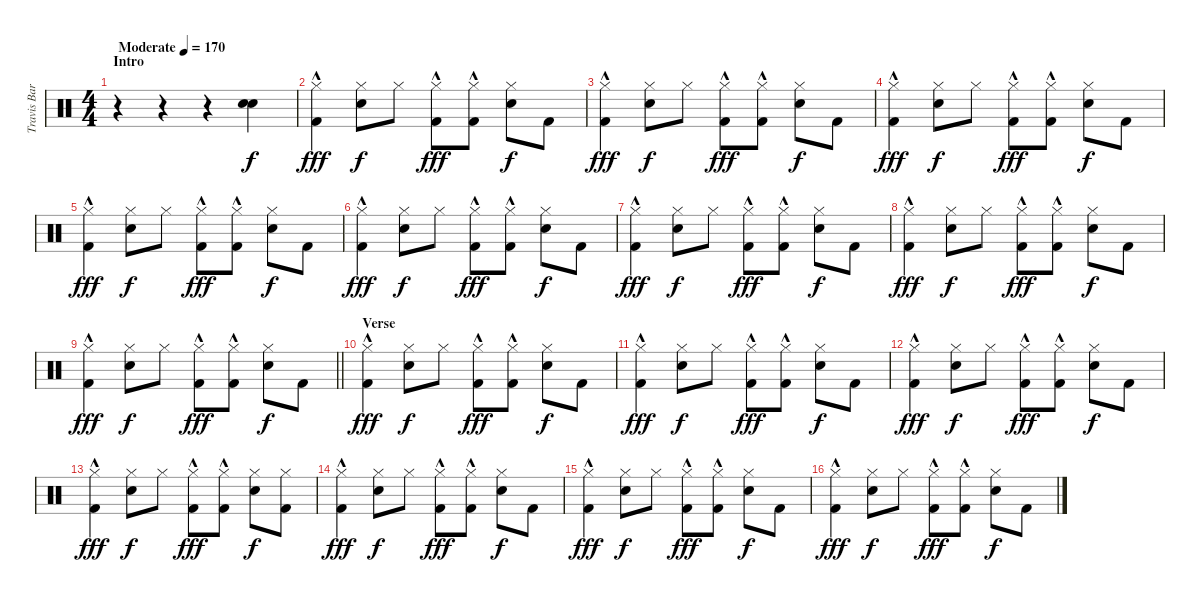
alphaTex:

\track ("Travis Barker" "Travis Bar") {instrument percussion}
\staff {score}
\articulation defaults
\ts (4 4)
\section ("" "Intro")
\tempo (170 "Moderate")
\clef neutral
\ks c
r.4{dy f} r.4 r.4 ("Snare (hit) 2" "Electric Snare (hit)").4 |
("Hi-Hat (closed)" "Kick (hit) 2"{hac}).4{dy fff} ("Hi-Hat (closed)" "Snare (hit) 2").8{dy f} "Hi-Hat (closed)".8 ("Hi-Hat (closed)" "Kick (hit) 2"{hac}).8{dy fff} ("Hi-Hat (closed)" "Kick (hit) 2"{hac}).8 ("Hi-Hat (closed)" "Snare (hit) 2").8{dy f} "Kick (hit) 2".8 |
("Hi-Hat (closed)" "Kick (hit) 2"{hac}).4{dy fff} ("Hi-Hat (closed)" "Snare (hit) 2").8{dy f} "Hi-Hat (closed)".8 ("Hi-Hat (closed)" "Kick (hit) 2"{hac}).8{dy fff} ("Hi-Hat (closed)" "Kick (hit) 2"{hac}).8 ("Hi-Hat (closed)" "Snare (hit) 2").8{dy f} "Kick (hit) 2".8 |
("Hi-Hat (closed)" "Kick (hit) 2"{hac}).4{dy fff} ("Hi-Hat (closed)" "Snare (hit) 2").8{dy f} "Hi-Hat (closed)".8 ("Hi-Hat (closed)" "Kick (hit) 2"{hac}).8{dy fff} ("Hi-Hat (closed)" "Kick (hit) 2"{hac}).8 ("Hi-Hat (closed)" "Snare (hit) 2").8{dy f} "Kick (hit) 2".8 |
("Hi-Hat (closed)" "Kick (hit) 2"{hac}).4{dy fff} ("Hi-Hat (closed)" "Snare (hit) 2").8{dy f} "Hi-Hat (closed)".8 ("Hi-Hat (closed)" "Kick (hit) 2"{hac}).8{dy fff} ("Hi-Hat (closed)" "Kick (hit) 2"{hac}).8 ("Hi-Hat (closed)" "Snare (hit) 2").8{dy f} "Kick (hit) 2".8 |
("Hi-Hat (closed)" "Kick (hit) 2"{hac}).4{dy fff} ("Hi-Hat (closed)" "Snare (hit) 2").8{dy f} "Hi-Hat (closed)".8 ("Hi-Hat (closed)" "Kick (hit) 2"{hac}).8{dy fff} ("Hi-Hat (closed)" "Kick (hit) 2"{hac}).8 ("Hi-Hat (closed)" "Snare (hit) 2").8{dy f} "Kick (hit) 2".8 |
("Hi-Hat (closed)" "Kick (hit) 2"{hac}).4{dy fff} ("Hi-Hat (closed)" "Snare (hit) 2").8{dy f} "Hi-Hat (closed)".8 ("Hi-Hat (closed)" "Kick (hit) 2"{hac}).8{dy fff} ("Hi-Hat (closed)" "Kick (hit) 2"{hac}).8 ("Hi-Hat (closed)" "Snare (hit) 2").8{dy f} "Kick (hit) 2".8 |
("Hi-Hat (closed)" "Kick (hit) 2"{hac}).4{dy fff} ("Hi-Hat (closed)" "Snare (hit) 2").8{dy f} "Hi-Hat (closed)".8 ("Hi-Hat (closed)" "Kick (hit) 2"{hac}).8{dy fff} ("Hi-Hat (closed)" "Kick (hit) 2"{hac}).8 ("Hi-Hat (closed)" "Snare (hit) 2").8{dy f} "Kick (hit) 2".8 |
\barLineRight lightlight
("Hi-Hat (closed)" "Kick (hit) 2"{hac}).4{dy fff} ("Hi-Hat (closed)" "Snare (hit) 2").8{dy f} "Hi-Hat (closed)".8 ("Hi-Hat (closed)" "Kick (hit) 2"{hac}).8{dy fff} ("Hi-Hat (closed)" "Kick (hit) 2"{hac}).8 ("Hi-Hat (closed)" "Snare (hit) 2").8{dy f} "Kick (hit) 2".8 |
\section ("" "Verse")
("Hi-Hat (closed)" "Kick (hit) 2"{hac}).4{dy fff} ("Hi-Hat (closed)" "Snare (hit) 2").8{dy f} "Hi-Hat (closed)".8 ("Hi-Hat (closed)" "Kick (hit) 2"{hac}).8{dy fff} ("Hi-Hat (closed)" "Kick (hit) 2"{hac}).8 ("Hi-Hat (closed)" "Snare (hit) 2").8{dy f} "Kick (hit) 2".8 |
("Hi-Hat (closed)" "Kick (hit) 2"{hac}).4{dy fff} ("Hi-Hat (closed)" "Snare (hit) 2").8{dy f} "Hi-Hat (closed)".8 ("Hi-Hat (closed)" "Kick (hit) 2"{hac}).8{dy fff} ("Hi-Hat (closed)" "Kick (hit) 2"{hac}).8 ("Hi-Hat (closed)" "Snare (hit) 2").8{dy f} "Kick (hit) 2".8 |
("Hi-Hat (closed)" "Kick (hit) 2"{hac}).4{dy fff} ("Hi-Hat (closed)" "Snare (hit) 2").8{dy f} "Hi-Hat (closed)".8 ("Hi-Hat (closed)" "Kick (hit) 2"{hac}).8{dy fff} ("Hi-Hat (closed)" "Kick (hit) 2"{hac}).8 ("Hi-Hat (closed)" "Snare (hit) 2").8{dy f} "Kick (hit) 2".8 |
("Hi-Hat (closed)" "Kick (hit) 2"{hac}).4{dy fff} ("Hi-Hat (closed)" "Snare (hit) 2").8{dy f} "Hi-Hat (closed)".8 ("Hi-Hat (closed)" "Kick (hit) 2"{hac}).8{dy fff} ("Hi-Hat (closed)" "Kick (hit) 2"{hac}).8 ("Hi-Hat (closed)" "Snare (hit) 2").8{dy f} ("Hi-Hat (closed)" "Kick (hit) 2").8 |
("Hi-Hat (closed)" "Kick (hit) 2"{hac}).4{dy fff} ("Hi-Hat (closed)" "Snare (hit) 2").8{dy f} "Hi-Hat (closed)".8 ("Hi-Hat (closed)" "Kick (hit) 2"{hac}).8{dy fff} ("Hi-Hat (closed)" "Kick (hit) 2"{hac}).8 ("Hi-Hat (closed)" "Snare (hit) 2").8{dy f} "Kick (hit) 2".8 |
("Hi-Hat (closed)" "Kick (hit) 2"{hac}).4{dy fff} ("Hi-Hat (closed)" "Snare (hit) 2").8{dy f} "Hi-Hat (closed)".8 ("Hi-Hat (closed)" "Kick (hit) 2"{hac}).8{dy fff} ("Hi-Hat (closed)" "Kick (hit) 2"{hac}).8 ("Hi-Hat (closed)" "Snare (hit) 2").8{dy f} "Kick (hit) 2".8 |
("Hi-Hat (closed)" "Kick (hit) 2"{hac}).4{dy fff} ("Hi-Hat (closed)" "Snare (hit) 2").8{dy f} "Hi-Hat (closed)".8 ("Hi-Hat (closed)" "Kick (hit) 2"{hac}).8{dy fff} ("Hi-Hat (closed)" "Kick (hit) 2"{hac}).8 ("Hi-Hat (closed)" "Snare (hit) 2").8{dy f} "Kick (hit) 2".8
